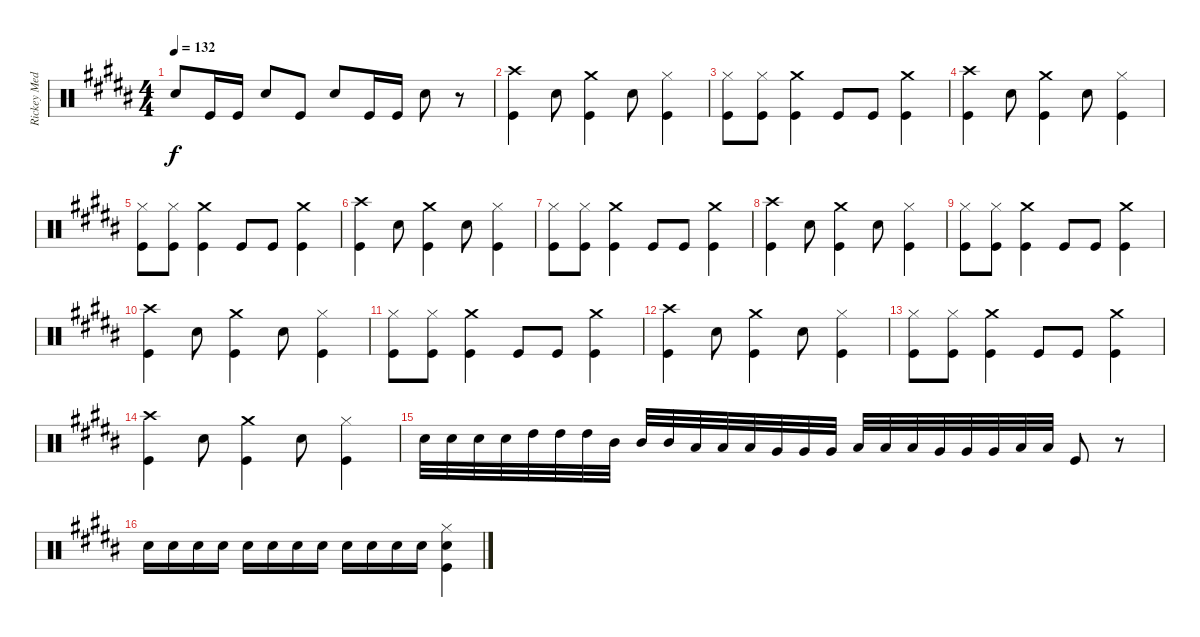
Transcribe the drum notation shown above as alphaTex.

\track ("Rickey Medlocke Drums" "Rickey Med") {instrument percussion}
\staff {score}
\articulation defaults
\ts (4 4)
\tempo 132
\clef neutral
\ks b "Snare (hit) 2".8{dy f} "Kick (hit)".16 "Kick (hit)".16 "Snare (hit) 2".8 "Kick (hit)".8 "Snare (hit) 2".8 "Kick (hit)".16 "Kick (hit)".16 "Snare (hit) 2".8
r.8 |
("Crash high (hit)" "Kick (hit)").4 "Snare (hit) 2".8 ("Crash medium (hit)" "Kick (hit)").4 "Snare (hit) 2".8 ("Hi-Hat (closed)" "Kick (hit)").4 |
("Hi-Hat (closed)" "Kick (hit)").8 ("Hi-Hat (closed)" "Kick (hit)").8 ("Crash medium (hit)" "Kick (hit)").4 "Kick (hit)".8 "Kick (hit)".8 ("Crash medium (hit)" "Kick (hit)").4 |
("Crash high (hit)" "Kick (hit)").4 "Snare (hit) 2".8 ("Crash medium (hit)" "Kick (hit)").4 "Snare (hit) 2".8 ("Hi-Hat (closed)" "Kick (hit)").4 |
("Hi-Hat (closed)" "Kick (hit)").8 ("Hi-Hat (closed)" "Kick (hit)").8 ("Crash medium (hit)" "Kick (hit)").4 "Kick (hit)".8 "Kick (hit)".8 ("Crash medium (hit)" "Kick (hit)").4 |
("Crash high (hit)" "Kick (hit)").4 "Snare (hit) 2".8 ("Crash medium (hit)" "Kick (hit)").4 "Snare (hit) 2".8 ("Hi-Hat (closed)" "Kick (hit)").4 |
("Hi-Hat (closed)" "Kick (hit)").8 ("Hi-Hat (closed)" "Kick (hit)").8 ("Crash medium (hit)" "Kick (hit)").4 "Kick (hit)".8 "Kick (hit)".8 ("Crash medium (hit)" "Kick (hit)").4 |
("Crash high (hit)" "Kick (hit)").4 "Snare (hit) 2".8 ("Crash medium (hit)" "Kick (hit)").4 "Snare (hit) 2".8 ("Hi-Hat (closed)" "Kick (hit)").4 |
("Hi-Hat (closed)" "Kick (hit)").8 ("Hi-Hat (closed)" "Kick (hit)").8 ("Crash medium (hit)" "Kick (hit)").4 "Kick (hit)".8 "Kick (hit)".8 ("Crash medium (hit)" "Kick (hit)").4 |
("Crash high (hit)" "Kick (hit)").4 "Snare (hit) 2".8 ("Crash medium (hit)" "Kick (hit)").4 "Snare (hit) 2".8 ("Hi-Hat (closed)" "Kick (hit)").4 |
("Hi-Hat (closed)" "Kick (hit)").8 ("Hi-Hat (closed)" "Kick (hit)").8 ("Crash medium (hit)" "Kick (hit)").4 "Kick (hit)".8 "Kick (hit)".8 ("Crash medium (hit)" "Kick (hit)").4 |
("Crash high (hit)" "Kick (hit)").4 "Snare (hit) 2".8 ("Crash medium (hit)" "Kick (hit)").4 "Snare (hit) 2".8 ("Hi-Hat (closed)" "Kick (hit)").4 |
("Hi-Hat (closed)" "Kick (hit)").8 ("Hi-Hat (closed)" "Kick (hit)").8 ("Crash medium (hit)" "Kick (hit)").4 "Kick (hit)".8 "Kick (hit)".8 ("Crash medium (hit)" "Kick (hit)").4 |
("Crash high (hit)" "Kick (hit)").4 "Snare (hit) 2".8 ("Crash medium (hit)" "Kick (hit)").4 "Snare (hit) 2".8 ("Hi-Hat (closed)" "Kick (hit)").4 |
"Snare (hit) 2".32 "Snare (hit) 2".32 "Snare (hit) 2".32 "Snare (hit) 2".32 "High Tom (hit)".32 "High Tom (hit)".32 "High Tom (hit)".32 "Mid Tom (hit)".32 "Mid Tom (hit)".32 "Mid Tom (hit)".32 "Low Tom (hit)".32 "Low Tom (hit)".32 "Low Tom (hit)".32 "Very Low Tom (hit)".32 "Very Low Tom (hit)".32 "Very Low Tom (hit)".32 "Low Floor Tom (hit)".32 "Low Floor Tom (hit)".32 "Low Floor Tom (hit)".32 "Very Low Tom (hit)".32 "Very Low Tom (hit)".32 "Very Low Tom (hit)".32 "Low Floor Tom (hit)".32 "Low Floor Tom (hit)".32 "Kick (hit)".8 r.8 |
"Snare (hit) 2".16 "Snare (hit) 2".16 "Snare (hit) 2".16 "Snare (hit) 2".16 "Snare (hit) 2".16 "Snare (hit) 2".16 "Snare (hit) 2".16 "Snare (hit) 2".16 "Snare (hit) 2".16 "Snare (hit) 2".16 "Snare (hit) 2".16 "Snare (hit) 2".16 ("Hi-Hat (closed)" "Snare (hit) 2" "Kick (hit)").4
